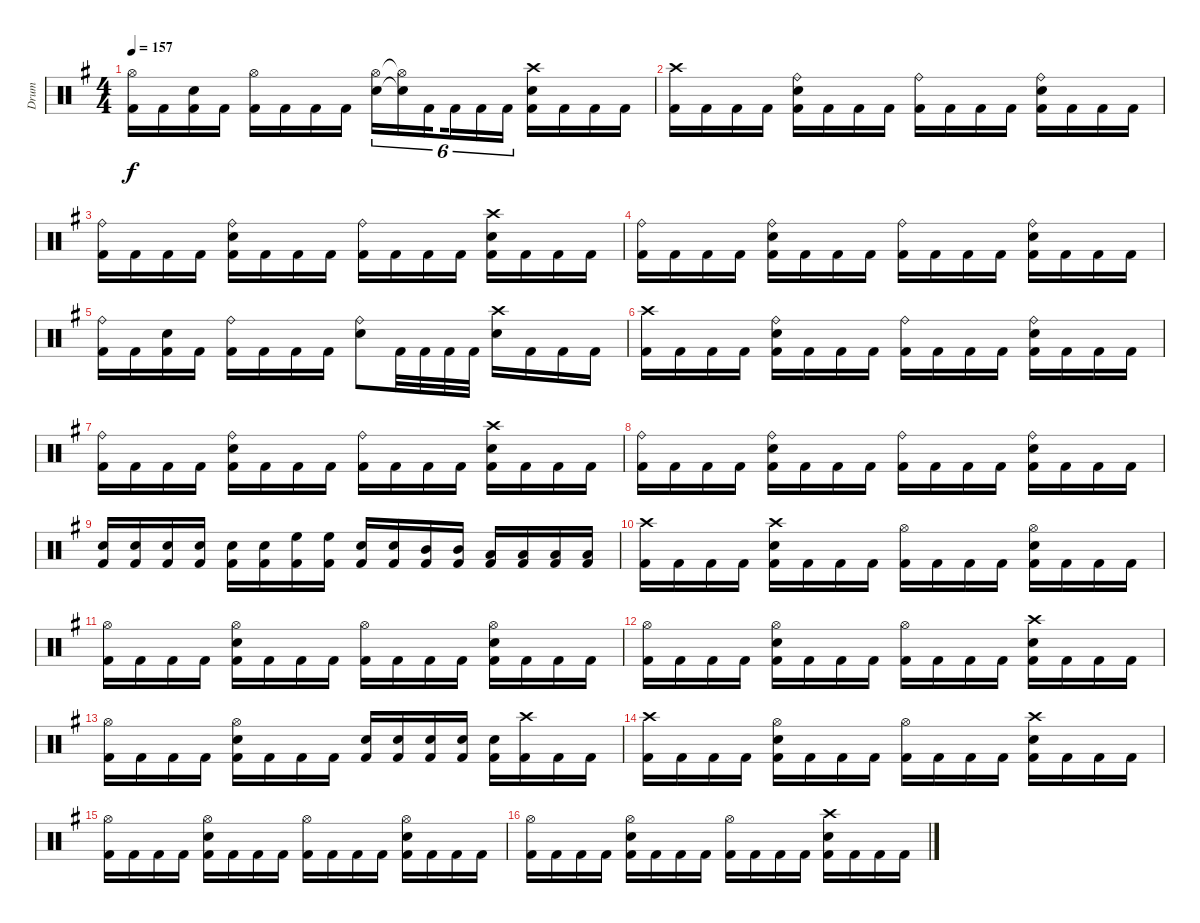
\track ("Drum" "Drum") {instrument percussion}
\staff {score}
\articulation defaults
\ts (4 4)
\tempo 157
\clef neutral
\ks eminor
("Hi-Hat (open)" "Kick (hit) 2").16{dy f} "Kick (hit) 2".16 ("Snare (hit) 2" "Kick (hit) 2").16 "Kick (hit) 2".16 ("Hi-Hat (open)" "Kick (hit) 2").16 "Kick (hit) 2".16 "Kick (hit) 2".16 "Kick (hit) 2".16 ("Hi-Hat (open)" "Snare (hit) 2").16{tu (6 4)} ("Hi-Hat (open)"{t} "Snare (hit) 2"{t}).16{tu (6 4)} "Kick (hit) 2".16{tu (6 4) beam splitsecondary} "Kick (hit) 2".16{tu (6 4)} "Kick (hit) 2".16{tu (6 4)} "Kick (hit) 2".16{tu (6 4)} ("Crash high (hit)" "Snare (hit) 2" "Kick (hit) 2").16 "Kick (hit) 2".16 "Kick (hit) 2".16 "Kick (hit) 2".16 |
("Crash high (hit)" "Kick (hit) 2").16 "Kick (hit) 2".16 "Kick (hit) 2".16 "Kick (hit) 2".16 ("Ride (bell)" "Snare (hit) 2" "Kick (hit) 2").16 "Kick (hit) 2".16 "Kick (hit) 2".16 "Kick (hit) 2".16 ("Ride (bell)" "Kick (hit) 2").16 "Kick (hit) 2".16 "Kick (hit) 2".16 "Kick (hit) 2".16 ("Ride (bell)" "Snare (hit) 2" "Kick (hit) 2").16 "Kick (hit) 2".16 "Kick (hit) 2".16 "Kick (hit) 2".16 |
("Ride (bell)" "Kick (hit) 2").16 "Kick (hit) 2".16 "Kick (hit) 2".16 "Kick (hit) 2".16 ("Ride (bell)" "Snare (hit) 2" "Kick (hit) 2").16 "Kick (hit) 2".16 "Kick (hit) 2".16 "Kick (hit) 2".16 ("Ride (bell)" "Kick (hit) 2").16 "Kick (hit) 2".16 "Kick (hit) 2".16 "Kick (hit) 2".16 ("Crash high (hit)" "Snare (hit) 2" "Kick (hit) 2").16 "Kick (hit) 2".16 "Kick (hit) 2".16 "Kick (hit) 2".16 |
("Ride (bell)" "Kick (hit) 2").16 "Kick (hit) 2".16 "Kick (hit) 2".16 "Kick (hit) 2".16 ("Ride (bell)" "Snare (hit) 2" "Kick (hit) 2").16 "Kick (hit) 2".16 "Kick (hit) 2".16 "Kick (hit) 2".16 ("Ride (bell)" "Kick (hit) 2").16 "Kick (hit) 2".16 "Kick (hit) 2".16 "Kick (hit) 2".16 ("Ride (bell)" "Snare (hit) 2" "Kick (hit) 2").16 "Kick (hit) 2".16 "Kick (hit) 2".16 "Kick (hit) 2".16 |
("Ride (bell)" "Kick (hit) 2").16 "Kick (hit) 2".16 ("Snare (hit) 2" "Kick (hit) 2").16 "Kick (hit) 2".16 ("Ride (bell)" "Kick (hit) 2").16 "Kick (hit) 2".16 "Kick (hit) 2".16 "Kick (hit) 2".16 ("Ride (bell)" "Snare (hit) 2").8 "Kick (hit) 2".32 "Kick (hit) 2".32 "Kick (hit) 2".32 "Kick (hit) 2".32 ("Crash high (hit)" "Snare (hit) 2").16 "Kick (hit) 2".16 "Kick (hit) 2".16 "Kick (hit) 2".16 |
("Crash high (hit)" "Kick (hit) 2").16 "Kick (hit) 2".16 "Kick (hit) 2".16 "Kick (hit) 2".16 ("Ride (bell)" "Snare (hit) 2" "Kick (hit) 2").16 "Kick (hit) 2".16 "Kick (hit) 2".16 "Kick (hit) 2".16 ("Ride (bell)" "Kick (hit) 2").16 "Kick (hit) 2".16 "Kick (hit) 2".16 "Kick (hit) 2".16 ("Ride (bell)" "Snare (hit) 2" "Kick (hit) 2").16 "Kick (hit) 2".16 "Kick (hit) 2".16 "Kick (hit) 2".16 |
("Ride (bell)" "Kick (hit) 2").16 "Kick (hit) 2".16 "Kick (hit) 2".16 "Kick (hit) 2".16 ("Ride (bell)" "Snare (hit) 2" "Kick (hit) 2").16 "Kick (hit) 2".16 "Kick (hit) 2".16 "Kick (hit) 2".16 ("Ride (bell)" "Kick (hit) 2").16 "Kick (hit) 2".16 "Kick (hit) 2".16 "Kick (hit) 2".16 ("Crash high (hit)" "Snare (hit) 2" "Kick (hit) 2").16 "Kick (hit) 2".16 "Kick (hit) 2".16 "Kick (hit) 2".16 |
("Ride (bell)" "Kick (hit) 2").16 "Kick (hit) 2".16 "Kick (hit) 2".16 "Kick (hit) 2".16 ("Ride (bell)" "Snare (hit) 2" "Kick (hit) 2").16 "Kick (hit) 2".16 "Kick (hit) 2".16 "Kick (hit) 2".16 ("Ride (bell)" "Kick (hit) 2").16 "Kick (hit) 2".16 "Kick (hit) 2".16 "Kick (hit) 2".16 ("Ride (bell)" "Snare (hit) 2" "Kick (hit) 2").16 "Kick (hit) 2".16 "Kick (hit) 2".16 "Kick (hit) 2".16 |
("Snare (hit) 2" "Kick (hit) 2").16 ("Snare (hit) 2" "Kick (hit) 2").16 ("Snare (hit) 2" "Kick (hit) 2").16 ("Snare (hit) 2" "Kick (hit) 2").16 ("Snare (hit) 2" "Kick (hit) 2").16 ("Snare (hit) 2" "Kick (hit) 2").16 ("High Floor Tom (hit)" "Kick (hit) 2").16 ("High Floor Tom (hit)" "Kick (hit) 2").16 ("Snare (hit) 2" "Kick (hit) 2").16 ("Snare (hit) 2" "Kick (hit) 2").16 ("Mid Tom (hit)" "Kick (hit) 2").16 ("Mid Tom (hit)" "Kick (hit) 2").16 ("Low Tom (hit)" "Kick (hit) 2").16 ("Low Tom (hit)" "Kick (hit) 2").16 ("Low Tom (hit)" "Kick (hit) 2").16 ("Low Tom (hit)" "Kick (hit) 2").16 |
("Crash high (hit)" "Kick (hit) 2").16 "Kick (hit) 2".16 "Kick (hit) 2".16 "Kick (hit) 2".16 ("Crash high (hit)" "Snare (hit) 2" "Kick (hit) 2").16 "Kick (hit) 2".16 "Kick (hit) 2".16 "Kick (hit) 2".16 ("Hi-Hat (open)" "Kick (hit) 2").16 "Kick (hit) 2".16 "Kick (hit) 2".16 "Kick (hit) 2".16 ("Hi-Hat (open)" "Snare (hit) 2" "Kick (hit) 2").16 "Kick (hit) 2".16 "Kick (hit) 2".16 "Kick (hit) 2".16 |
("Hi-Hat (open)" "Kick (hit) 2").16 "Kick (hit) 2".16 "Kick (hit) 2".16 "Kick (hit) 2".16 ("Hi-Hat (open)" "Snare (hit) 2" "Kick (hit) 2").16 "Kick (hit) 2".16 "Kick (hit) 2".16 "Kick (hit) 2".16 ("Hi-Hat (open)" "Kick (hit) 2").16 "Kick (hit) 2".16 "Kick (hit) 2".16 "Kick (hit) 2".16 ("Hi-Hat (open)" "Snare (hit) 2" "Kick (hit) 2").16 "Kick (hit) 2".16 "Kick (hit) 2".16 "Kick (hit) 2".16 |
("Hi-Hat (open)" "Kick (hit) 2").16 "Kick (hit) 2".16 "Kick (hit) 2".16 "Kick (hit) 2".16 ("Hi-Hat (open)" "Snare (hit) 2" "Kick (hit) 2").16 "Kick (hit) 2".16 "Kick (hit) 2".16 "Kick (hit) 2".16 ("Hi-Hat (open)" "Kick (hit) 2").16 "Kick (hit) 2".16 "Kick (hit) 2".16 "Kick (hit) 2".16 ("Crash high (hit)" "Snare (hit) 2" "Kick (hit) 2").16 "Kick (hit) 2".16 "Kick (hit) 2".16 "Kick (hit) 2".16 |
("Hi-Hat (open)" "Kick (hit) 2").16 "Kick (hit) 2".16 "Kick (hit) 2".16 "Kick (hit) 2".16 ("Hi-Hat (open)" "Snare (hit) 2" "Kick (hit) 2").16 "Kick (hit) 2".16 "Kick (hit) 2".16 "Kick (hit) 2".16 ("Snare (hit) 2" "Kick (hit) 2").16 ("Snare (hit) 2" "Kick (hit) 2").16 ("Snare (hit) 2" "Kick (hit) 2").16 ("Snare (hit) 2" "Kick (hit) 2").16 ("Snare (hit) 2" "Kick (hit) 2").16 ("Crash high (hit)" "Kick (hit) 2").16 "Kick (hit) 2".16 "Kick (hit) 2".16 |
("Crash high (hit)" "Kick (hit) 2").16 "Kick (hit) 2".16 "Kick (hit) 2".16 "Kick (hit) 2".16 ("Hi-Hat (open)" "Snare (hit) 2" "Kick (hit) 2").16 "Kick (hit) 2".16 "Kick (hit) 2".16 "Kick (hit) 2".16 ("Hi-Hat (open)" "Kick (hit) 2").16 "Kick (hit) 2".16 "Kick (hit) 2".16 "Kick (hit) 2".16 ("Crash high (hit)" "Snare (hit) 2" "Kick (hit) 2").16 "Kick (hit) 2".16 "Kick (hit) 2".16 "Kick (hit) 2".16 |
("Hi-Hat (open)" "Kick (hit) 2").16 "Kick (hit) 2".16 "Kick (hit) 2".16 "Kick (hit) 2".16 ("Hi-Hat (open)" "Snare (hit) 2" "Kick (hit) 2").16 "Kick (hit) 2".16 "Kick (hit) 2".16 "Kick (hit) 2".16 ("Hi-Hat (open)" "Kick (hit) 2").16 "Kick (hit) 2".16 "Kick (hit) 2".16 "Kick (hit) 2".16 ("Hi-Hat (open)" "Snare (hit) 2" "Kick (hit) 2").16 "Kick (hit) 2".16 "Kick (hit) 2".16 "Kick (hit) 2".16 |
("Hi-Hat (open)" "Kick (hit) 2").16 "Kick (hit) 2".16 "Kick (hit) 2".16 "Kick (hit) 2".16 ("Hi-Hat (open)" "Snare (hit) 2" "Kick (hit) 2").16 "Kick (hit) 2".16 "Kick (hit) 2".16 "Kick (hit) 2".16 ("Hi-Hat (open)" "Kick (hit) 2").16 "Kick (hit) 2".16 "Kick (hit) 2".16 "Kick (hit) 2".16 ("Crash high (hit)" "Snare (hit) 2" "Kick (hit) 2").16 "Kick (hit) 2".16 "Kick (hit) 2".16 "Kick (hit) 2".16
